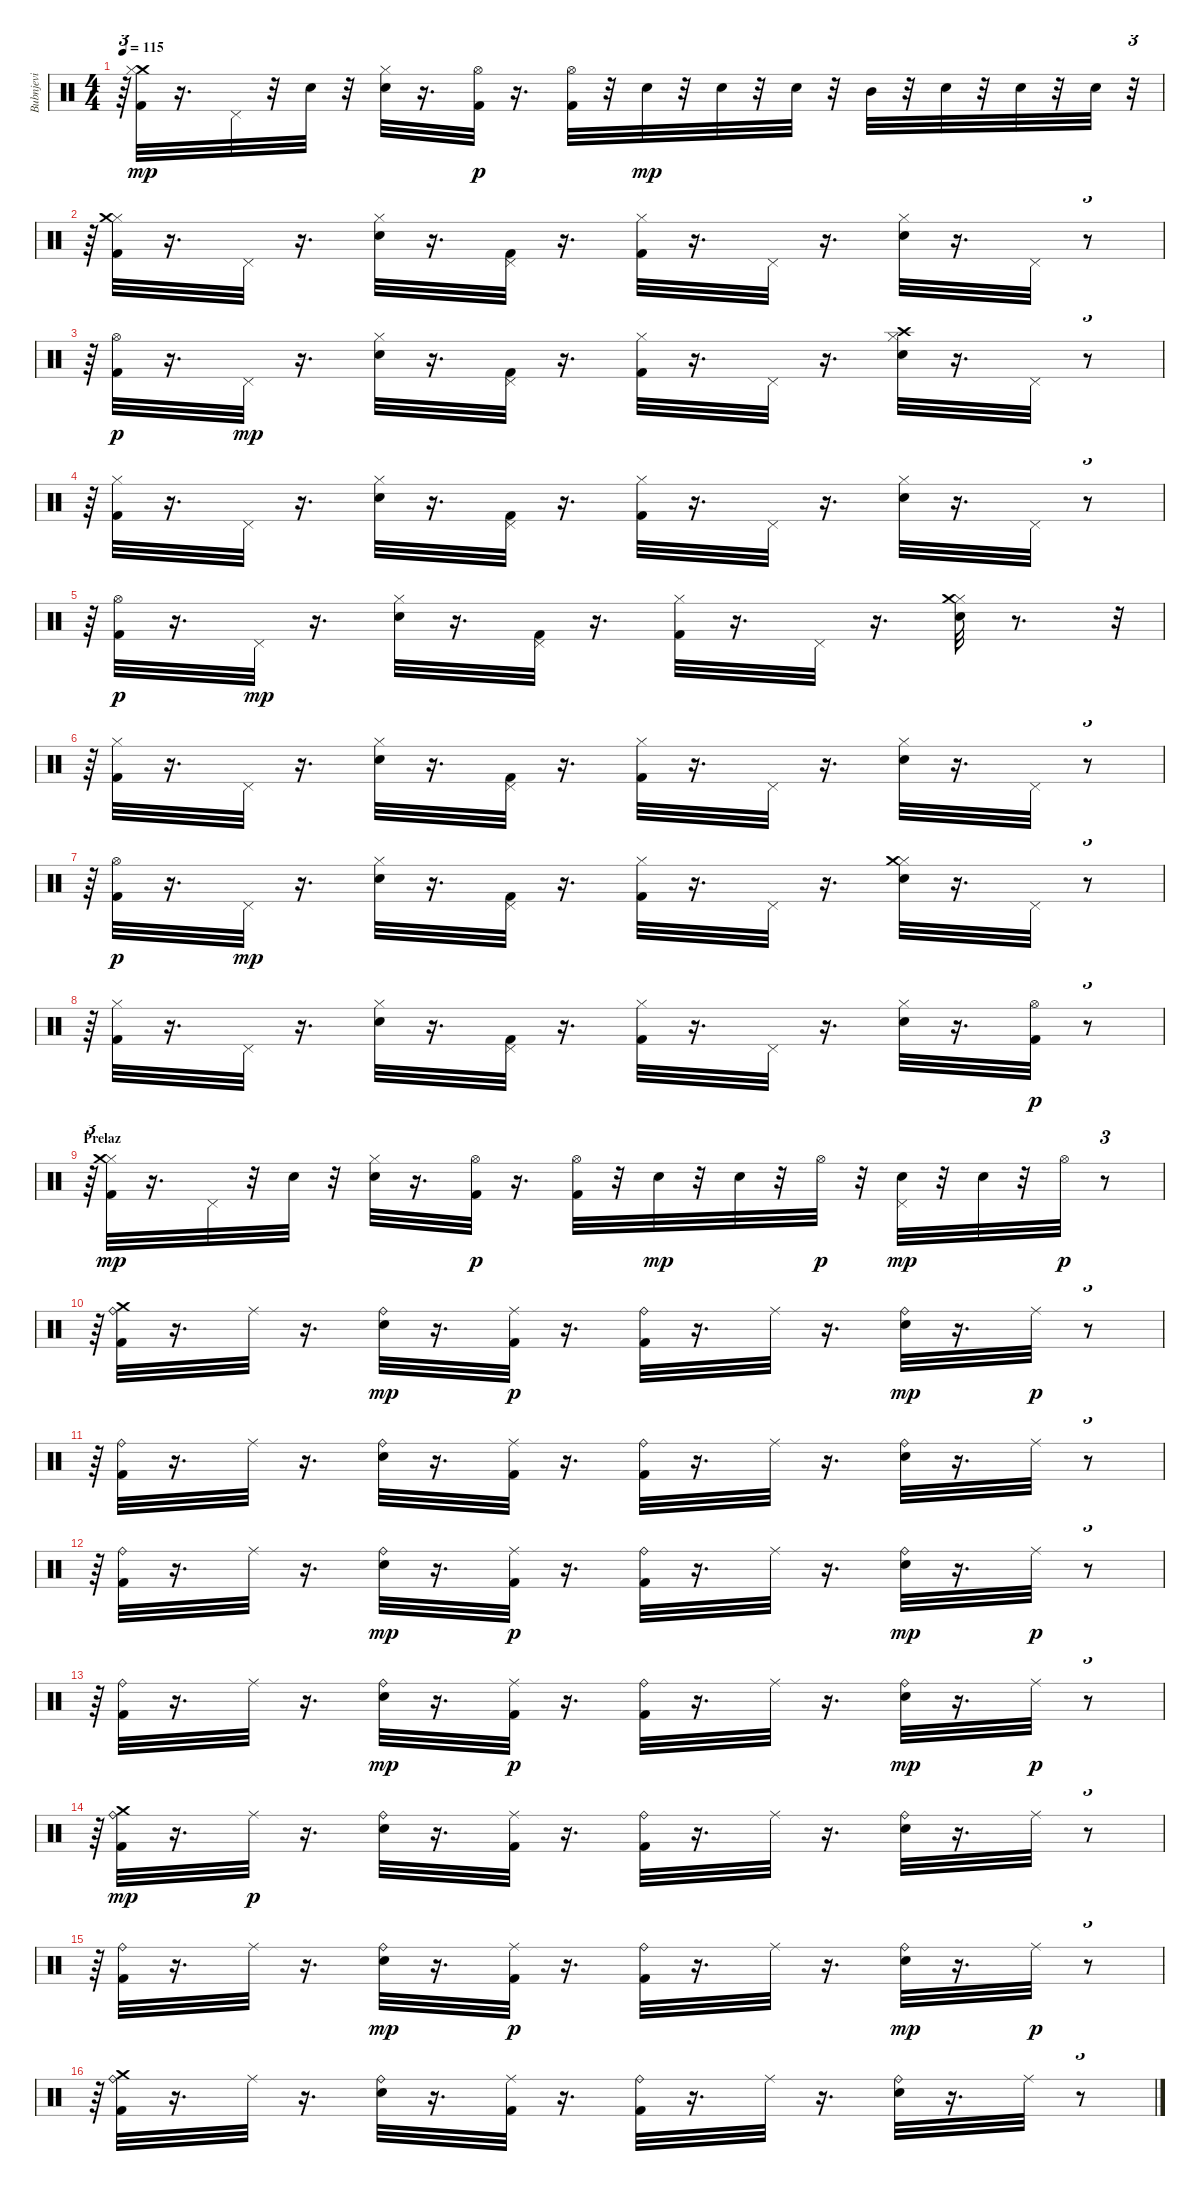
\track ("Bubnjevi" "Bubnjevi") {instrument percussion}
\staff {score}
\articulation defaults
\ts (4 4)
\tempo 115
\clef neutral
\ks c
r.64{tu (3 2) dy p} ("Crash medium (hit)" "Hi-Hat (closed)" "Kick (hit) 2").32{dy mp} r.16{d} "Pedal Hi-Hat (hit)".32 r.32 "Electric Snare (hit)".32 r.32 ("Hi-Hat (closed)" "Electric Snare (hit)").32 r.16{d} ("Hi-Hat (open)" "Kick (hit) 2").32{dy p} r.16{d} ("Hi-Hat (open)" "Kick (hit) 2").32 r.32 "Electric Snare (hit)".32{dy mp} r.32 "Electric Snare (hit)".32 r.32 "Electric Snare (hit)".32 r.32 "Mid Tom (hit)".32 r.32 "Electric Snare (hit)".32 r.32 "Electric Snare (hit)".32 r.32 "Electric Snare (hit)".32 r.32{tu (3 2)} |
r.64{tu (3 2)} ("Hi-Hat (closed)" "Kick (hit) 2" "Crash medium (hit)").32 r.16{d} "Pedal Hi-Hat (hit)".32 r.16{d} ("Hi-Hat (closed)" "Electric Snare (hit)").32 r.16{d} ("Pedal Hi-Hat (hit)" "Kick (hit) 2").32 r.16{d} ("Hi-Hat (closed)" "Kick (hit) 2").32 r.16{d} "Pedal Hi-Hat (hit)".32 r.16{d} ("Hi-Hat (closed)" "Electric Snare (hit)").32 r.16{d} "Pedal Hi-Hat (hit)".32 r.8{tu (3 2)} |
r.64{tu (3 2)} ("Kick (hit) 2" "Hi-Hat (open)").32{dy p} r.16{d} "Pedal Hi-Hat (hit)".32{dy mp} r.16{d} ("Electric Snare (hit)" "Hi-Hat (closed)").32 r.16{d} ("Kick (hit) 2" "Pedal Hi-Hat (hit)").32 r.16{d} ("Kick (hit) 2" "Hi-Hat (closed)").32 r.16{d} "Pedal Hi-Hat (hit)".32 r.16{d} ("Electric Snare (hit)" "Hi-Hat (closed)" "Crash high (hit)").32 r.16{d} "Pedal Hi-Hat (hit)".32 r.8{tu (3 2)} |
r.64{tu (3 2)} ("Kick (hit) 2" "Hi-Hat (closed)").32 r.16{d} "Pedal Hi-Hat (hit)".32 r.16{d} ("Electric Snare (hit)" "Hi-Hat (closed)").32 r.16{d} ("Kick (hit) 2" "Pedal Hi-Hat (hit)").32 r.16{d} ("Kick (hit) 2" "Hi-Hat (closed)").32 r.16{d} "Pedal Hi-Hat (hit)".32 r.16{d} ("Electric Snare (hit)" "Hi-Hat (closed)").32 r.16{d} "Pedal Hi-Hat (hit)".32 r.8{tu (3 2)} |
r.64{tu (3 2)} ("Kick (hit) 2" "Hi-Hat (open)").32{dy p} r.16{d} "Pedal Hi-Hat (hit)".32{dy mp} r.16{d} ("Hi-Hat (closed)" "Electric Snare (hit)").32 r.16{d} ("Pedal Hi-Hat (hit)" "Kick (hit) 2").32 r.16{d} ("Hi-Hat (closed)" "Kick (hit) 2").32 r.16{d} "Pedal Hi-Hat (hit)".32 r.16{d} ("Hi-Hat (closed)" "Electric Snare (hit)" "Crash medium (hit)").32 r.8{d} r.32{tu (3 2)} |
r.64{tu (3 2)} ("Kick (hit) 2" "Hi-Hat (closed)").32 r.16{d} "Pedal Hi-Hat (hit)".32 r.16{d} ("Electric Snare (hit)" "Hi-Hat (closed)").32 r.16{d} ("Kick (hit) 2" "Pedal Hi-Hat (hit)").32 r.16{d} ("Kick (hit) 2" "Hi-Hat (closed)").32 r.16{d} "Pedal Hi-Hat (hit)".32 r.16{d} ("Electric Snare (hit)" "Hi-Hat (closed)").32 r.16{d} "Pedal Hi-Hat (hit)".32 r.8{tu (3 2)} |
r.64{tu (3 2)} ("Kick (hit) 2" "Hi-Hat (open)").32{dy p} r.16{d} "Pedal Hi-Hat (hit)".32{dy mp} r.16{d} ("Hi-Hat (closed)" "Electric Snare (hit)").32 r.16{d} ("Pedal Hi-Hat (hit)" "Kick (hit) 2").32 r.16{d} ("Hi-Hat (closed)" "Kick (hit) 2").32 r.16{d} "Pedal Hi-Hat (hit)".32 r.16{d} ("Hi-Hat (closed)" "Electric Snare (hit)" "Crash medium (hit)").32 r.16{d} "Pedal Hi-Hat (hit)".32 r.8{tu (3 2)} |
r.64{tu (3 2)} ("Hi-Hat (closed)" "Kick (hit) 2").32 r.16{d} "Pedal Hi-Hat (hit)".32 r.16{d} ("Hi-Hat (closed)" "Electric Snare (hit)").32 r.16{d} ("Pedal Hi-Hat (hit)" "Kick (hit) 2").32 r.16{d} ("Hi-Hat (closed)" "Kick (hit) 2").32 r.16{d} "Pedal Hi-Hat (hit)".32 r.16{d} ("Hi-Hat (closed)" "Electric Snare (hit)").32 r.16{d} ("Kick (hit) 2" "Hi-Hat (open)").32{dy p} r.8{tu (3 2)} |
\section ("" "Prelaz")
r.64{tu (3 2)} ("Kick (hit) 2" "Hi-Hat (closed)" "Crash medium (hit)").32{dy mp} r.16{d} "Pedal Hi-Hat (hit)".32 r.32 "Electric Snare (hit)".32 r.32 ("Electric Snare (hit)" "Hi-Hat (closed)").32 r.16{d} ("Kick (hit) 2" "Hi-Hat (open)").32{dy p} r.16{d} ("Kick (hit) 2" "Hi-Hat (open)").32 r.32 "Electric Snare (hit)".32{dy mp} r.32 "Electric Snare (hit)".32 r.32 "Hi-Hat (open)".32{dy p} r.32 ("Pedal Hi-Hat (hit)" "Electric Snare (hit)").32{dy mp} r.32 "Electric Snare (hit)".32 r.32 "Hi-Hat (open)".32{dy p} r.8{tu (3 2)} |
r.64{tu (3 2)} ("Crash medium (hit)" "Ride (bell)" "Kick (hit) 2").32 r.16{d} "Ride (middle)".32 r.16{d} ("Ride (bell)" "Electric Snare (hit)").32{dy mp} r.16{d} ("Ride (middle)" "Kick (hit) 2").32{dy p} r.16{d} ("Ride (bell)" "Kick (hit) 2").32 r.16{d} "Ride (middle)".32 r.16{d} ("Ride (bell)" "Electric Snare (hit)").32{dy mp} r.16{d} "Ride (middle)".32{dy p} r.8{tu (3 2)} |
r.64{tu (3 2)} ("Kick (hit) 2" "Ride (bell)").32 r.16{d} "Ride (middle)".32 r.16{d} ("Electric Snare (hit)" "Ride (bell)").32 r.16{d} ("Kick (hit) 2" "Ride (middle)").32 r.16{d} ("Kick (hit) 2" "Ride (bell)").32 r.16{d} "Ride (middle)".32 r.16{d} ("Electric Snare (hit)" "Ride (bell)").32 r.16{d} "Ride (middle)".32 r.8{tu (3 2)} |
r.64{tu (3 2)} ("Ride (bell)" "Kick (hit) 2").32 r.16{d} "Ride (middle)".32 r.16{d} ("Ride (bell)" "Electric Snare (hit)").32{dy mp} r.16{d} ("Ride (middle)" "Kick (hit) 2").32{dy p} r.16{d} ("Ride (bell)" "Kick (hit) 2").32 r.16{d} "Ride (middle)".32 r.16{d} ("Ride (bell)" "Electric Snare (hit)").32{dy mp} r.16{d} "Ride (middle)".32{dy p} r.8{tu (3 2)} |
r.64{tu (3 2)} ("Ride (bell)" "Kick (hit) 2").32 r.16{d} "Ride (middle)".32 r.16{d} ("Ride (bell)" "Electric Snare (hit)").32{dy mp} r.16{d} ("Ride (middle)" "Kick (hit) 2").32{dy p} r.16{d} ("Ride (bell)" "Kick (hit) 2").32 r.16{d} "Ride (middle)".32 r.16{d} ("Ride (bell)" "Electric Snare (hit)").32{dy mp} r.16{d} "Ride (middle)".32{dy p} r.8{tu (3 2)} |
r.64{tu (3 2)} ("Kick (hit) 2" "Ride (bell)" "Crash medium (hit)").32{dy mp} r.16{d} "Ride (middle)".32{dy p} r.16{d} ("Electric Snare (hit)" "Ride (bell)").32 r.16{d} ("Kick (hit) 2" "Ride (middle)").32 r.16{d} ("Kick (hit) 2" "Ride (bell)").32 r.16{d} "Ride (middle)".32 r.16{d} ("Electric Snare (hit)" "Ride (bell)").32 r.16{d} "Ride (middle)".32 r.8{tu (3 2)} |
r.64{tu (3 2)} ("Ride (bell)" "Kick (hit) 2").32 r.16{d} "Ride (middle)".32 r.16{d} ("Ride (bell)" "Electric Snare (hit)").32{dy mp} r.16{d} ("Ride (middle)" "Kick (hit) 2").32{dy p} r.16{d} ("Ride (bell)" "Kick (hit) 2").32 r.16{d} "Ride (middle)".32 r.16{d} ("Ride (bell)" "Electric Snare (hit)").32{dy mp} r.16{d} "Ride (middle)".32{dy p} r.8{tu (3 2)} |
r.64{tu (3 2)} ("Crash medium (hit)" "Kick (hit) 2" "Ride (bell)").32 r.16{d} "Ride (middle)".32 r.16{d} ("Electric Snare (hit)" "Ride (bell)").32 r.16{d} ("Kick (hit) 2" "Ride (middle)").32 r.16{d} ("Kick (hit) 2" "Ride (bell)").32 r.16{d} "Ride (middle)".32 r.16{d} ("Electric Snare (hit)" "Ride (bell)").32 r.16{d} "Ride (middle)".32 r.8{tu (3 2)}
